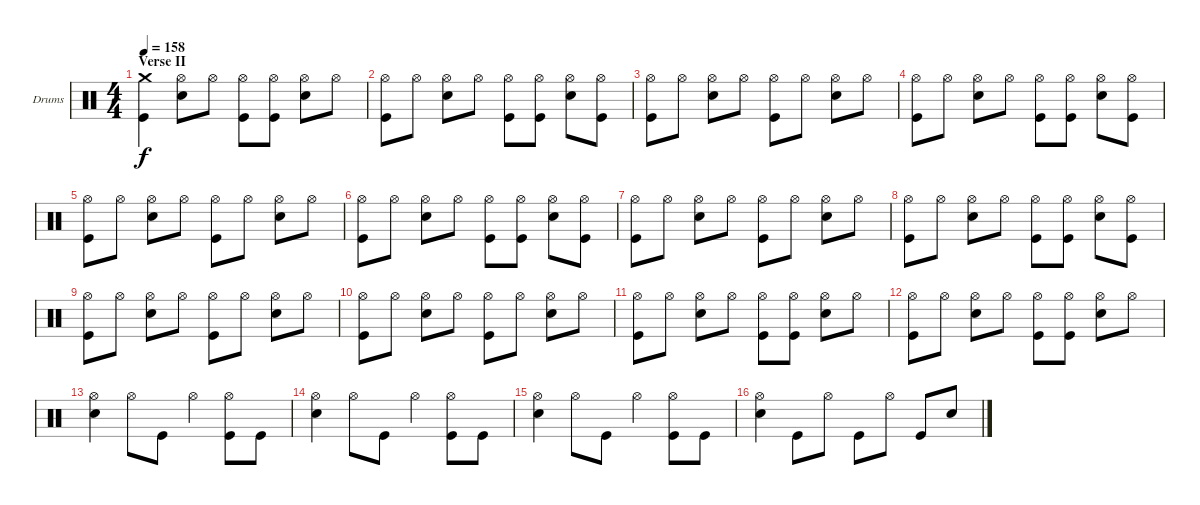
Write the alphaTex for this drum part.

\bracketExtendMode groupsimilarinstruments
\firstSystemTrackNameOrientation horizontal
\otherSystemsTrackNameOrientation horizontal
\track ("Drumkit" "Drums") {instrument percussion}
\staff {score}
\articulation defaults
\ts (4 4)
\section ("" "Verse II")
\tempo 158
\clef neutral
\ks c
("Crash medium (hit)" "Kick (hit)").4{dy f} ("Hi-Hat (open)" "Snare (hit) 2").8 "Hi-Hat (open)".8 ("Hi-Hat (open)" "Kick (hit)").8 ("Hi-Hat (open)" "Kick (hit)").8 ("Hi-Hat (open)" "Snare (hit) 2").8 "Hi-Hat (open)".8 |
("Hi-Hat (open)" "Kick (hit)").8 "Hi-Hat (open)".8 ("Hi-Hat (open)" "Snare (hit) 2").8 "Hi-Hat (open)".8 ("Hi-Hat (open)" "Kick (hit)").8 ("Hi-Hat (open)" "Kick (hit)").8 ("Hi-Hat (open)" "Snare (hit) 2").8 ("Hi-Hat (open)" "Kick (hit)").8 |
("Hi-Hat (open)" "Kick (hit)").8 "Hi-Hat (open)".8 ("Hi-Hat (open)" "Snare (hit) 2").8 "Hi-Hat (open)".8 ("Hi-Hat (open)" "Kick (hit)").8 "Hi-Hat (open)".8 ("Hi-Hat (open)" "Snare (hit) 2").8 "Hi-Hat (open)".8 |
("Hi-Hat (open)" "Kick (hit)").8 "Hi-Hat (open)".8 ("Hi-Hat (open)" "Snare (hit) 2").8 "Hi-Hat (open)".8 ("Hi-Hat (open)" "Kick (hit)").8 ("Hi-Hat (open)" "Kick (hit)").8 ("Hi-Hat (open)" "Snare (hit) 2").8 ("Hi-Hat (open)" "Kick (hit)").8 |
("Hi-Hat (open)" "Kick (hit)").8 "Hi-Hat (open)".8 ("Hi-Hat (open)" "Snare (hit) 2").8 "Hi-Hat (open)".8 ("Hi-Hat (open)" "Kick (hit)").8 "Hi-Hat (open)".8 ("Hi-Hat (open)" "Snare (hit) 2").8 "Hi-Hat (open)".8 |
("Hi-Hat (open)" "Kick (hit)").8 "Hi-Hat (open)".8 ("Hi-Hat (open)" "Snare (hit) 2").8 "Hi-Hat (open)".8 ("Hi-Hat (open)" "Kick (hit)").8 ("Hi-Hat (open)" "Kick (hit)").8 ("Hi-Hat (open)" "Snare (hit) 2").8 ("Hi-Hat (open)" "Kick (hit)").8 |
("Hi-Hat (open)" "Kick (hit)").8 "Hi-Hat (open)".8 ("Hi-Hat (open)" "Snare (hit) 2").8 "Hi-Hat (open)".8 ("Hi-Hat (open)" "Kick (hit)").8 "Hi-Hat (open)".8 ("Hi-Hat (open)" "Snare (hit) 2").8 "Hi-Hat (open)".8 |
("Hi-Hat (open)" "Kick (hit)").8 "Hi-Hat (open)".8 ("Hi-Hat (open)" "Snare (hit) 2").8 "Hi-Hat (open)".8 ("Hi-Hat (open)" "Kick (hit)").8 ("Hi-Hat (open)" "Kick (hit)").8 ("Hi-Hat (open)" "Snare (hit) 2").8 ("Hi-Hat (open)" "Kick (hit)").8 |
("Hi-Hat (open)" "Kick (hit)").8 "Hi-Hat (open)".8 ("Hi-Hat (open)" "Snare (hit) 2").8 "Hi-Hat (open)".8 ("Hi-Hat (open)" "Kick (hit)").8 "Hi-Hat (open)".8 ("Hi-Hat (open)" "Snare (hit) 2").8 "Hi-Hat (open)".8 |
("Hi-Hat (open)" "Kick (hit)").8 "Hi-Hat (open)".8 ("Hi-Hat (open)" "Snare (hit) 2").8 "Hi-Hat (open)".8 ("Hi-Hat (open)" "Kick (hit)").8 "Hi-Hat (open)".8 ("Hi-Hat (open)" "Snare (hit) 2").8 "Hi-Hat (open)".8 |
("Hi-Hat (open)" "Kick (hit)").8 "Hi-Hat (open)".8 ("Hi-Hat (open)" "Snare (hit) 2").8 "Hi-Hat (open)".8 ("Hi-Hat (open)" "Kick (hit)").8 ("Hi-Hat (open)" "Kick (hit)").8 ("Hi-Hat (open)" "Snare (hit) 2").8 "Hi-Hat (open)".8 |
("Hi-Hat (open)" "Kick (hit)").8 "Hi-Hat (open)".8 ("Hi-Hat (open)" "Snare (hit) 2").8 "Hi-Hat (open)".8 ("Hi-Hat (open)" "Kick (hit)").8 ("Hi-Hat (open)" "Kick (hit)").8 ("Hi-Hat (open)" "Snare (hit) 2").8 "Hi-Hat (open)".8 |
("Hi-Hat (open)" "Snare (hit) 2").4 "Hi-Hat (open)".8 "Kick (hit)".8 "Hi-Hat (open)".4 ("Hi-Hat (open)" "Kick (hit)").8 "Kick (hit)".8 |
("Hi-Hat (open)" "Snare (hit) 2").4 "Hi-Hat (open)".8 "Kick (hit)".8 "Hi-Hat (open)".4 ("Hi-Hat (open)" "Kick (hit)").8 "Kick (hit)".8 |
("Hi-Hat (open)" "Snare (hit) 2").4 "Hi-Hat (open)".8 "Kick (hit)".8 "Hi-Hat (open)".4 ("Hi-Hat (open)" "Kick (hit)").8 "Kick (hit)".8 |
("Hi-Hat (open)" "Snare (hit) 2").4 "Kick (hit)".8 "Hi-Hat (open)".8 "Kick (hit)".8 "Hi-Hat (open)".8 "Kick (hit)".8 "Snare (hit) 2".8
